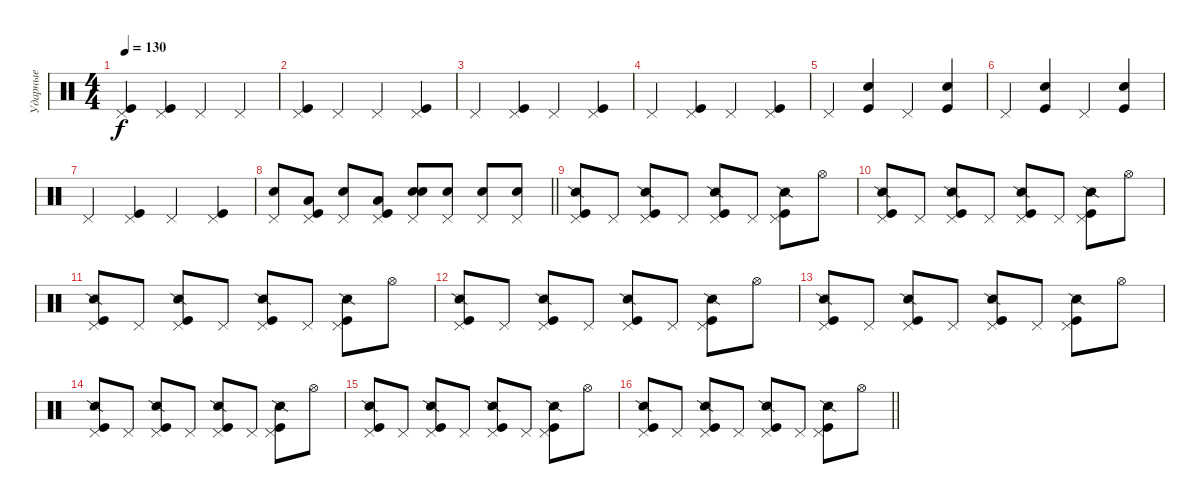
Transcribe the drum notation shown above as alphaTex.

\track ("Ударные" "Ударные") {instrument percussion}
\staff {score}
\articulation defaults
\ts (4 4)
\tempo 130
\clef neutral
\ks c
("Pedal Hi-Hat (hit)" "Kick (hit)").4{dy f} ("Pedal Hi-Hat (hit)" "Kick (hit)").4 "Pedal Hi-Hat (hit)".4 "Pedal Hi-Hat (hit)".4 |
("Pedal Hi-Hat (hit)" "Kick (hit)").4 "Pedal Hi-Hat (hit)".4 "Pedal Hi-Hat (hit)".4 ("Pedal Hi-Hat (hit)" "Kick (hit)").4 |
"Pedal Hi-Hat (hit)".4 ("Pedal Hi-Hat (hit)" "Kick (hit)").4 "Pedal Hi-Hat (hit)".4 ("Pedal Hi-Hat (hit)" "Kick (hit)").4 |
"Pedal Hi-Hat (hit)".4 ("Pedal Hi-Hat (hit)" "Kick (hit)").4 "Pedal Hi-Hat (hit)".4 ("Pedal Hi-Hat (hit)" "Kick (hit)").4 |
"Pedal Hi-Hat (hit)".4 ("Snare (hit)" "Kick (hit)").4 "Pedal Hi-Hat (hit)".4 ("Snare (hit)" "Kick (hit)").4 |
"Pedal Hi-Hat (hit)".4 ("Snare (hit)" "Kick (hit)").4 "Pedal Hi-Hat (hit)".4 ("Snare (hit)" "Kick (hit)").4 |
"Pedal Hi-Hat (hit)".4 ("Pedal Hi-Hat (hit)" "Kick (hit)").4 "Pedal Hi-Hat (hit)".4 ("Pedal Hi-Hat (hit)" "Kick (hit)").4 |
\barLineRight lightlight
("Pedal Hi-Hat (hit)" "Snare (hit) 2").8 ("Pedal Hi-Hat (hit)" "Low Tom (hit)" "Kick (hit)").8 ("Pedal Hi-Hat (hit)" "Snare (hit) 2").8 ("Pedal Hi-Hat (hit)" "Low Tom (hit)" "Kick (hit)").8 ("Pedal Hi-Hat (hit)" "Electric Snare (hit)" "Snare (hit) 2").8 ("Pedal Hi-Hat (hit)" "Snare (hit) 2").8 ("Pedal Hi-Hat (hit)" "Snare (hit) 2").8 ("Pedal Hi-Hat (hit)" "Snare (hit) 2").8 |
("Pedal Hi-Hat (hit)" "Kick (hit)" "Snare (side stick) 2").8 "Pedal Hi-Hat (hit)".8 ("Pedal Hi-Hat (hit)" "Kick (hit)" "Snare (side stick) 2").8 "Pedal Hi-Hat (hit)".8 ("Pedal Hi-Hat (hit)" "Kick (hit)" "Snare (side stick) 2").8 "Pedal Hi-Hat (hit)".8 ("Pedal Hi-Hat (hit)" "Kick (hit)" "Snare (side stick) 2").8 "Hi-Hat (open)".8 |
("Pedal Hi-Hat (hit)" "Kick (hit)" "Snare (side stick) 2").8 "Pedal Hi-Hat (hit)".8 ("Pedal Hi-Hat (hit)" "Kick (hit)" "Snare (side stick) 2").8 "Pedal Hi-Hat (hit)".8 ("Pedal Hi-Hat (hit)" "Kick (hit)" "Snare (side stick) 2").8 "Pedal Hi-Hat (hit)".8 ("Pedal Hi-Hat (hit)" "Kick (hit)" "Snare (side stick) 2").8 "Hi-Hat (open)".8 |
("Pedal Hi-Hat (hit)" "Kick (hit)" "Snare (side stick) 2").8 "Pedal Hi-Hat (hit)".8 ("Pedal Hi-Hat (hit)" "Kick (hit)" "Snare (side stick) 2").8 "Pedal Hi-Hat (hit)".8 ("Pedal Hi-Hat (hit)" "Kick (hit)" "Snare (side stick) 2").8 "Pedal Hi-Hat (hit)".8 ("Pedal Hi-Hat (hit)" "Kick (hit)" "Snare (side stick) 2").8 "Hi-Hat (open)".8 |
("Pedal Hi-Hat (hit)" "Kick (hit)" "Snare (side stick) 2").8 "Pedal Hi-Hat (hit)".8 ("Pedal Hi-Hat (hit)" "Kick (hit)" "Snare (side stick) 2").8 "Pedal Hi-Hat (hit)".8 ("Pedal Hi-Hat (hit)" "Kick (hit)" "Snare (side stick) 2").8 "Pedal Hi-Hat (hit)".8 ("Pedal Hi-Hat (hit)" "Kick (hit)" "Snare (side stick) 2").8 "Hi-Hat (open)".8 |
("Pedal Hi-Hat (hit)" "Kick (hit)" "Snare (side stick) 2").8 "Pedal Hi-Hat (hit)".8 ("Pedal Hi-Hat (hit)" "Kick (hit)" "Snare (side stick) 2").8 "Pedal Hi-Hat (hit)".8 ("Pedal Hi-Hat (hit)" "Kick (hit)" "Snare (side stick) 2").8 "Pedal Hi-Hat (hit)".8 ("Pedal Hi-Hat (hit)" "Kick (hit)" "Snare (side stick) 2").8 "Hi-Hat (open)".8 |
("Pedal Hi-Hat (hit)" "Kick (hit)" "Snare (side stick) 2").8 "Pedal Hi-Hat (hit)".8 ("Pedal Hi-Hat (hit)" "Kick (hit)" "Snare (side stick) 2").8 "Pedal Hi-Hat (hit)".8 ("Pedal Hi-Hat (hit)" "Kick (hit)" "Snare (side stick) 2").8 "Pedal Hi-Hat (hit)".8 ("Pedal Hi-Hat (hit)" "Kick (hit)" "Snare (side stick) 2").8 "Hi-Hat (open)".8 |
("Pedal Hi-Hat (hit)" "Kick (hit)" "Snare (side stick) 2").8 "Pedal Hi-Hat (hit)".8 ("Pedal Hi-Hat (hit)" "Kick (hit)" "Snare (side stick) 2").8 "Pedal Hi-Hat (hit)".8 ("Pedal Hi-Hat (hit)" "Kick (hit)" "Snare (side stick) 2").8 "Pedal Hi-Hat (hit)".8 ("Pedal Hi-Hat (hit)" "Kick (hit)" "Snare (side stick) 2").8 "Hi-Hat (open)".8 |
\barLineRight lightlight
("Pedal Hi-Hat (hit)" "Kick (hit)" "Snare (side stick) 2").8 "Pedal Hi-Hat (hit)".8 ("Pedal Hi-Hat (hit)" "Kick (hit)" "Snare (side stick) 2").8 "Pedal Hi-Hat (hit)".8 ("Pedal Hi-Hat (hit)" "Kick (hit)" "Snare (side stick) 2").8 "Pedal Hi-Hat (hit)".8 ("Pedal Hi-Hat (hit)" "Kick (hit)" "Snare (side stick) 2").8 "Hi-Hat (open)".8
